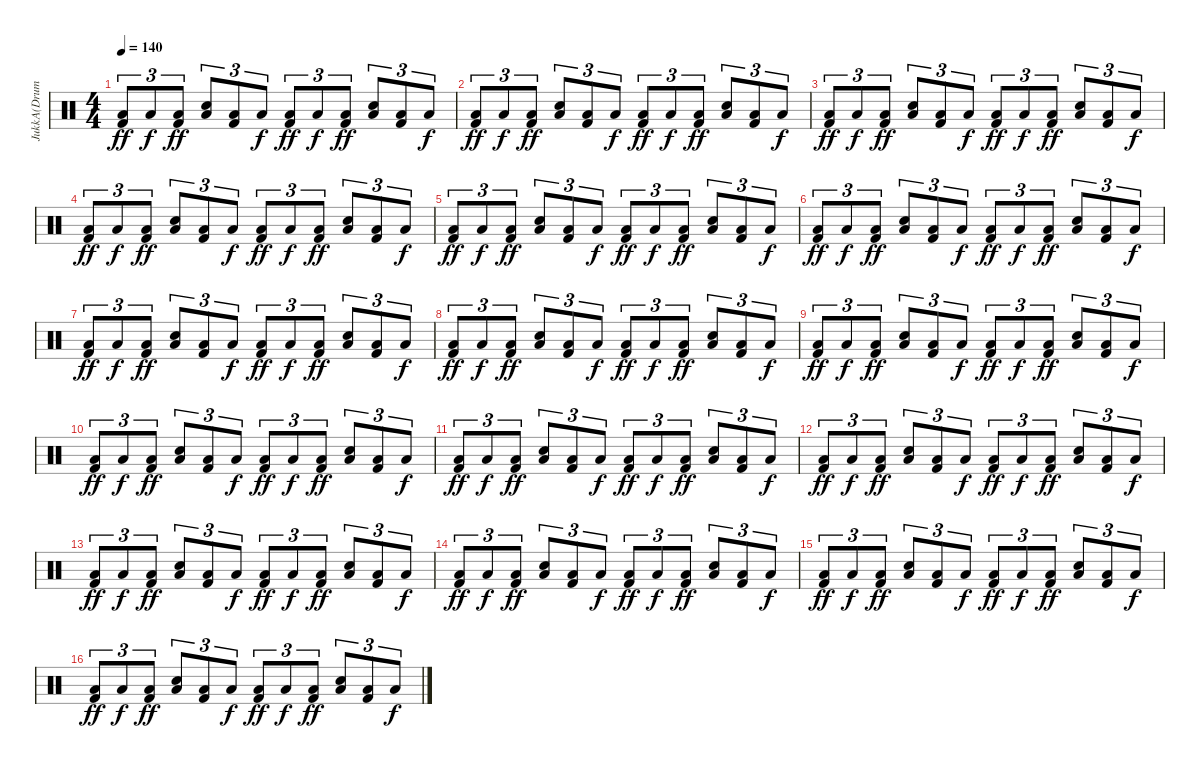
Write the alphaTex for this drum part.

\track ("JukkA(Drums)" "JukkA(Drum") {instrument percussion}
\staff {score}
\articulation defaults
\ts (4 4)
\tempo 140
\clef neutral
\ks c
("Kick (hit) 2" "Low Floor Tom (hit)").8{tu (3 2) dy ff} "Low Floor Tom (hit)".8{tu (3 2) dy f} ("Kick (hit) 2" "Low Floor Tom (hit)").8{tu (3 2) dy ff} ("Snare (hit) 2" "Low Floor Tom (hit)").8{tu (3 2)} ("Kick (hit) 2" "Low Floor Tom (hit)").8{tu (3 2)} "Low Floor Tom (hit)".8{tu (3 2) dy f} ("Kick (hit) 2" "Low Floor Tom (hit)").8{tu (3 2) dy ff} "Low Floor Tom (hit)".8{tu (3 2) dy f} ("Kick (hit) 2" "Low Floor Tom (hit)").8{tu (3 2) dy ff} ("Snare (hit) 2" "Low Floor Tom (hit)").8{tu (3 2)} ("Kick (hit) 2" "Low Floor Tom (hit)").8{tu (3 2)} "Low Floor Tom (hit)".8{tu (3 2) dy f} |
("Kick (hit) 2" "Low Floor Tom (hit)").8{tu (3 2) dy ff} "Low Floor Tom (hit)".8{tu (3 2) dy f} ("Kick (hit) 2" "Low Floor Tom (hit)").8{tu (3 2) dy ff} ("Snare (hit) 2" "Low Floor Tom (hit)").8{tu (3 2)} ("Kick (hit) 2" "Low Floor Tom (hit)").8{tu (3 2)} "Low Floor Tom (hit)".8{tu (3 2) dy f} ("Kick (hit) 2" "Low Floor Tom (hit)").8{tu (3 2) dy ff} "Low Floor Tom (hit)".8{tu (3 2) dy f} ("Kick (hit) 2" "Low Floor Tom (hit)").8{tu (3 2) dy ff} ("Snare (hit) 2" "Low Floor Tom (hit)").8{tu (3 2)} ("Kick (hit) 2" "Low Floor Tom (hit)").8{tu (3 2)} "Low Floor Tom (hit)".8{tu (3 2) dy f} |
("Kick (hit) 2" "Low Floor Tom (hit)").8{tu (3 2) dy ff} "Low Floor Tom (hit)".8{tu (3 2) dy f} ("Kick (hit) 2" "Low Floor Tom (hit)").8{tu (3 2) dy ff} ("Snare (hit) 2" "Low Floor Tom (hit)").8{tu (3 2)} ("Kick (hit) 2" "Low Floor Tom (hit)").8{tu (3 2)} "Low Floor Tom (hit)".8{tu (3 2) dy f} ("Kick (hit) 2" "Low Floor Tom (hit)").8{tu (3 2) dy ff} "Low Floor Tom (hit)".8{tu (3 2) dy f} ("Kick (hit) 2" "Low Floor Tom (hit)").8{tu (3 2) dy ff} ("Snare (hit) 2" "Low Floor Tom (hit)").8{tu (3 2)} ("Kick (hit) 2" "Low Floor Tom (hit)").8{tu (3 2)} "Low Floor Tom (hit)".8{tu (3 2) dy f} |
("Kick (hit) 2" "Low Floor Tom (hit)").8{tu (3 2) dy ff} "Low Floor Tom (hit)".8{tu (3 2) dy f} ("Kick (hit) 2" "Low Floor Tom (hit)").8{tu (3 2) dy ff} ("Snare (hit) 2" "Low Floor Tom (hit)").8{tu (3 2)} ("Kick (hit) 2" "Low Floor Tom (hit)").8{tu (3 2)} "Low Floor Tom (hit)".8{tu (3 2) dy f} ("Kick (hit) 2" "Low Floor Tom (hit)").8{tu (3 2) dy ff} "Low Floor Tom (hit)".8{tu (3 2) dy f} ("Kick (hit) 2" "Low Floor Tom (hit)").8{tu (3 2) dy ff} ("Snare (hit) 2" "Low Floor Tom (hit)").8{tu (3 2)} ("Kick (hit) 2" "Low Floor Tom (hit)").8{tu (3 2)} "Low Floor Tom (hit)".8{tu (3 2) dy f} |
("Kick (hit) 2" "Low Floor Tom (hit)").8{tu (3 2) dy ff} "Low Floor Tom (hit)".8{tu (3 2) dy f} ("Kick (hit) 2" "Low Floor Tom (hit)").8{tu (3 2) dy ff} ("Snare (hit) 2" "Low Floor Tom (hit)").8{tu (3 2)} ("Kick (hit) 2" "Low Floor Tom (hit)").8{tu (3 2)} "Low Floor Tom (hit)".8{tu (3 2) dy f} ("Kick (hit) 2" "Low Floor Tom (hit)").8{tu (3 2) dy ff} "Low Floor Tom (hit)".8{tu (3 2) dy f} ("Kick (hit) 2" "Low Floor Tom (hit)").8{tu (3 2) dy ff} ("Snare (hit) 2" "Low Floor Tom (hit)").8{tu (3 2)} ("Kick (hit) 2" "Low Floor Tom (hit)").8{tu (3 2)} "Low Floor Tom (hit)".8{tu (3 2) dy f} |
("Kick (hit) 2" "Low Floor Tom (hit)").8{tu (3 2) dy ff} "Low Floor Tom (hit)".8{tu (3 2) dy f} ("Kick (hit) 2" "Low Floor Tom (hit)").8{tu (3 2) dy ff} ("Snare (hit) 2" "Low Floor Tom (hit)").8{tu (3 2)} ("Kick (hit) 2" "Low Floor Tom (hit)").8{tu (3 2)} "Low Floor Tom (hit)".8{tu (3 2) dy f} ("Kick (hit) 2" "Low Floor Tom (hit)").8{tu (3 2) dy ff} "Low Floor Tom (hit)".8{tu (3 2) dy f} ("Kick (hit) 2" "Low Floor Tom (hit)").8{tu (3 2) dy ff} ("Snare (hit) 2" "Low Floor Tom (hit)").8{tu (3 2)} ("Kick (hit) 2" "Low Floor Tom (hit)").8{tu (3 2)} "Low Floor Tom (hit)".8{tu (3 2) dy f} |
("Kick (hit) 2" "Low Floor Tom (hit)").8{tu (3 2) dy ff} "Low Floor Tom (hit)".8{tu (3 2) dy f} ("Kick (hit) 2" "Low Floor Tom (hit)").8{tu (3 2) dy ff} ("Snare (hit) 2" "Low Floor Tom (hit)").8{tu (3 2)} ("Kick (hit) 2" "Low Floor Tom (hit)").8{tu (3 2)} "Low Floor Tom (hit)".8{tu (3 2) dy f} ("Kick (hit) 2" "Low Floor Tom (hit)").8{tu (3 2) dy ff} "Low Floor Tom (hit)".8{tu (3 2) dy f} ("Kick (hit) 2" "Low Floor Tom (hit)").8{tu (3 2) dy ff} ("Snare (hit) 2" "Low Floor Tom (hit)").8{tu (3 2)} ("Kick (hit) 2" "Low Floor Tom (hit)").8{tu (3 2)} "Low Floor Tom (hit)".8{tu (3 2) dy f} |
("Kick (hit) 2" "Low Floor Tom (hit)").8{tu (3 2) dy ff} "Low Floor Tom (hit)".8{tu (3 2) dy f} ("Kick (hit) 2" "Low Floor Tom (hit)").8{tu (3 2) dy ff} ("Snare (hit) 2" "Low Floor Tom (hit)").8{tu (3 2)} ("Kick (hit) 2" "Low Floor Tom (hit)").8{tu (3 2)} "Low Floor Tom (hit)".8{tu (3 2) dy f} ("Kick (hit) 2" "Low Floor Tom (hit)").8{tu (3 2) dy ff} "Low Floor Tom (hit)".8{tu (3 2) dy f} ("Kick (hit) 2" "Low Floor Tom (hit)").8{tu (3 2) dy ff} ("Snare (hit) 2" "Low Floor Tom (hit)").8{tu (3 2)} ("Kick (hit) 2" "Low Floor Tom (hit)").8{tu (3 2)} "Low Floor Tom (hit)".8{tu (3 2) dy f} |
("Kick (hit) 2" "Low Floor Tom (hit)").8{tu (3 2) dy ff} "Low Floor Tom (hit)".8{tu (3 2) dy f} ("Kick (hit) 2" "Low Floor Tom (hit)").8{tu (3 2) dy ff} ("Snare (hit) 2" "Low Floor Tom (hit)").8{tu (3 2)} ("Kick (hit) 2" "Low Floor Tom (hit)").8{tu (3 2)} "Low Floor Tom (hit)".8{tu (3 2) dy f} ("Kick (hit) 2" "Low Floor Tom (hit)").8{tu (3 2) dy ff} "Low Floor Tom (hit)".8{tu (3 2) dy f} ("Kick (hit) 2" "Low Floor Tom (hit)").8{tu (3 2) dy ff} ("Snare (hit) 2" "Low Floor Tom (hit)").8{tu (3 2)} ("Kick (hit) 2" "Low Floor Tom (hit)").8{tu (3 2)} "Low Floor Tom (hit)".8{tu (3 2) dy f} |
("Kick (hit) 2" "Low Floor Tom (hit)").8{tu (3 2) dy ff} "Low Floor Tom (hit)".8{tu (3 2) dy f} ("Kick (hit) 2" "Low Floor Tom (hit)").8{tu (3 2) dy ff} ("Snare (hit) 2" "Low Floor Tom (hit)").8{tu (3 2)} ("Kick (hit) 2" "Low Floor Tom (hit)").8{tu (3 2)} "Low Floor Tom (hit)".8{tu (3 2) dy f} ("Kick (hit) 2" "Low Floor Tom (hit)").8{tu (3 2) dy ff} "Low Floor Tom (hit)".8{tu (3 2) dy f} ("Kick (hit) 2" "Low Floor Tom (hit)").8{tu (3 2) dy ff} ("Snare (hit) 2" "Low Floor Tom (hit)").8{tu (3 2)} ("Kick (hit) 2" "Low Floor Tom (hit)").8{tu (3 2)} "Low Floor Tom (hit)".8{tu (3 2) dy f} |
("Kick (hit) 2" "Low Floor Tom (hit)").8{tu (3 2) dy ff} "Low Floor Tom (hit)".8{tu (3 2) dy f} ("Kick (hit) 2" "Low Floor Tom (hit)").8{tu (3 2) dy ff} ("Snare (hit) 2" "Low Floor Tom (hit)").8{tu (3 2)} ("Kick (hit) 2" "Low Floor Tom (hit)").8{tu (3 2)} "Low Floor Tom (hit)".8{tu (3 2) dy f} ("Kick (hit) 2" "Low Floor Tom (hit)").8{tu (3 2) dy ff} "Low Floor Tom (hit)".8{tu (3 2) dy f} ("Kick (hit) 2" "Low Floor Tom (hit)").8{tu (3 2) dy ff} ("Snare (hit) 2" "Low Floor Tom (hit)").8{tu (3 2)} ("Kick (hit) 2" "Low Floor Tom (hit)").8{tu (3 2)} "Low Floor Tom (hit)".8{tu (3 2) dy f} |
("Kick (hit) 2" "Low Floor Tom (hit)").8{tu (3 2) dy ff} "Low Floor Tom (hit)".8{tu (3 2) dy f} ("Kick (hit) 2" "Low Floor Tom (hit)").8{tu (3 2) dy ff} ("Snare (hit) 2" "Low Floor Tom (hit)").8{tu (3 2)} ("Kick (hit) 2" "Low Floor Tom (hit)").8{tu (3 2)} "Low Floor Tom (hit)".8{tu (3 2) dy f} ("Kick (hit) 2" "Low Floor Tom (hit)").8{tu (3 2) dy ff} "Low Floor Tom (hit)".8{tu (3 2) dy f} ("Kick (hit) 2" "Low Floor Tom (hit)").8{tu (3 2) dy ff} ("Snare (hit) 2" "Low Floor Tom (hit)").8{tu (3 2)} ("Kick (hit) 2" "Low Floor Tom (hit)").8{tu (3 2)} "Low Floor Tom (hit)".8{tu (3 2) dy f} |
("Kick (hit) 2" "Low Floor Tom (hit)").8{tu (3 2) dy ff} "Low Floor Tom (hit)".8{tu (3 2) dy f} ("Kick (hit) 2" "Low Floor Tom (hit)").8{tu (3 2) dy ff} ("Snare (hit) 2" "Low Floor Tom (hit)").8{tu (3 2)} ("Kick (hit) 2" "Low Floor Tom (hit)").8{tu (3 2)} "Low Floor Tom (hit)".8{tu (3 2) dy f} ("Kick (hit) 2" "Low Floor Tom (hit)").8{tu (3 2) dy ff} "Low Floor Tom (hit)".8{tu (3 2) dy f} ("Kick (hit) 2" "Low Floor Tom (hit)").8{tu (3 2) dy ff} ("Snare (hit) 2" "Low Floor Tom (hit)").8{tu (3 2)} ("Kick (hit) 2" "Low Floor Tom (hit)").8{tu (3 2)} "Low Floor Tom (hit)".8{tu (3 2) dy f} |
("Kick (hit) 2" "Low Floor Tom (hit)").8{tu (3 2) dy ff} "Low Floor Tom (hit)".8{tu (3 2) dy f} ("Kick (hit) 2" "Low Floor Tom (hit)").8{tu (3 2) dy ff} ("Snare (hit) 2" "Low Floor Tom (hit)").8{tu (3 2)} ("Kick (hit) 2" "Low Floor Tom (hit)").8{tu (3 2)} "Low Floor Tom (hit)".8{tu (3 2) dy f} ("Kick (hit) 2" "Low Floor Tom (hit)").8{tu (3 2) dy ff} "Low Floor Tom (hit)".8{tu (3 2) dy f} ("Kick (hit) 2" "Low Floor Tom (hit)").8{tu (3 2) dy ff} ("Snare (hit) 2" "Low Floor Tom (hit)").8{tu (3 2)} ("Kick (hit) 2" "Low Floor Tom (hit)").8{tu (3 2)} "Low Floor Tom (hit)".8{tu (3 2) dy f} |
("Kick (hit) 2" "Low Floor Tom (hit)").8{tu (3 2) dy ff} "Low Floor Tom (hit)".8{tu (3 2) dy f} ("Kick (hit) 2" "Low Floor Tom (hit)").8{tu (3 2) dy ff} ("Snare (hit) 2" "Low Floor Tom (hit)").8{tu (3 2)} ("Kick (hit) 2" "Low Floor Tom (hit)").8{tu (3 2)} "Low Floor Tom (hit)".8{tu (3 2) dy f} ("Kick (hit) 2" "Low Floor Tom (hit)").8{tu (3 2) dy ff} "Low Floor Tom (hit)".8{tu (3 2) dy f} ("Kick (hit) 2" "Low Floor Tom (hit)").8{tu (3 2) dy ff} ("Snare (hit) 2" "Low Floor Tom (hit)").8{tu (3 2)} ("Kick (hit) 2" "Low Floor Tom (hit)").8{tu (3 2)} "Low Floor Tom (hit)".8{tu (3 2) dy f} |
("Kick (hit) 2" "Low Floor Tom (hit)").8{tu (3 2) dy ff} "Low Floor Tom (hit)".8{tu (3 2) dy f} ("Kick (hit) 2" "Low Floor Tom (hit)").8{tu (3 2) dy ff} ("Snare (hit) 2" "Low Floor Tom (hit)").8{tu (3 2)} ("Kick (hit) 2" "Low Floor Tom (hit)").8{tu (3 2)} "Low Floor Tom (hit)".8{tu (3 2) dy f} ("Kick (hit) 2" "Low Floor Tom (hit)").8{tu (3 2) dy ff} "Low Floor Tom (hit)".8{tu (3 2) dy f} ("Kick (hit) 2" "Low Floor Tom (hit)").8{tu (3 2) dy ff} ("Snare (hit) 2" "Low Floor Tom (hit)").8{tu (3 2)} ("Kick (hit) 2" "Low Floor Tom (hit)").8{tu (3 2)} "Low Floor Tom (hit)".8{tu (3 2) dy f}
